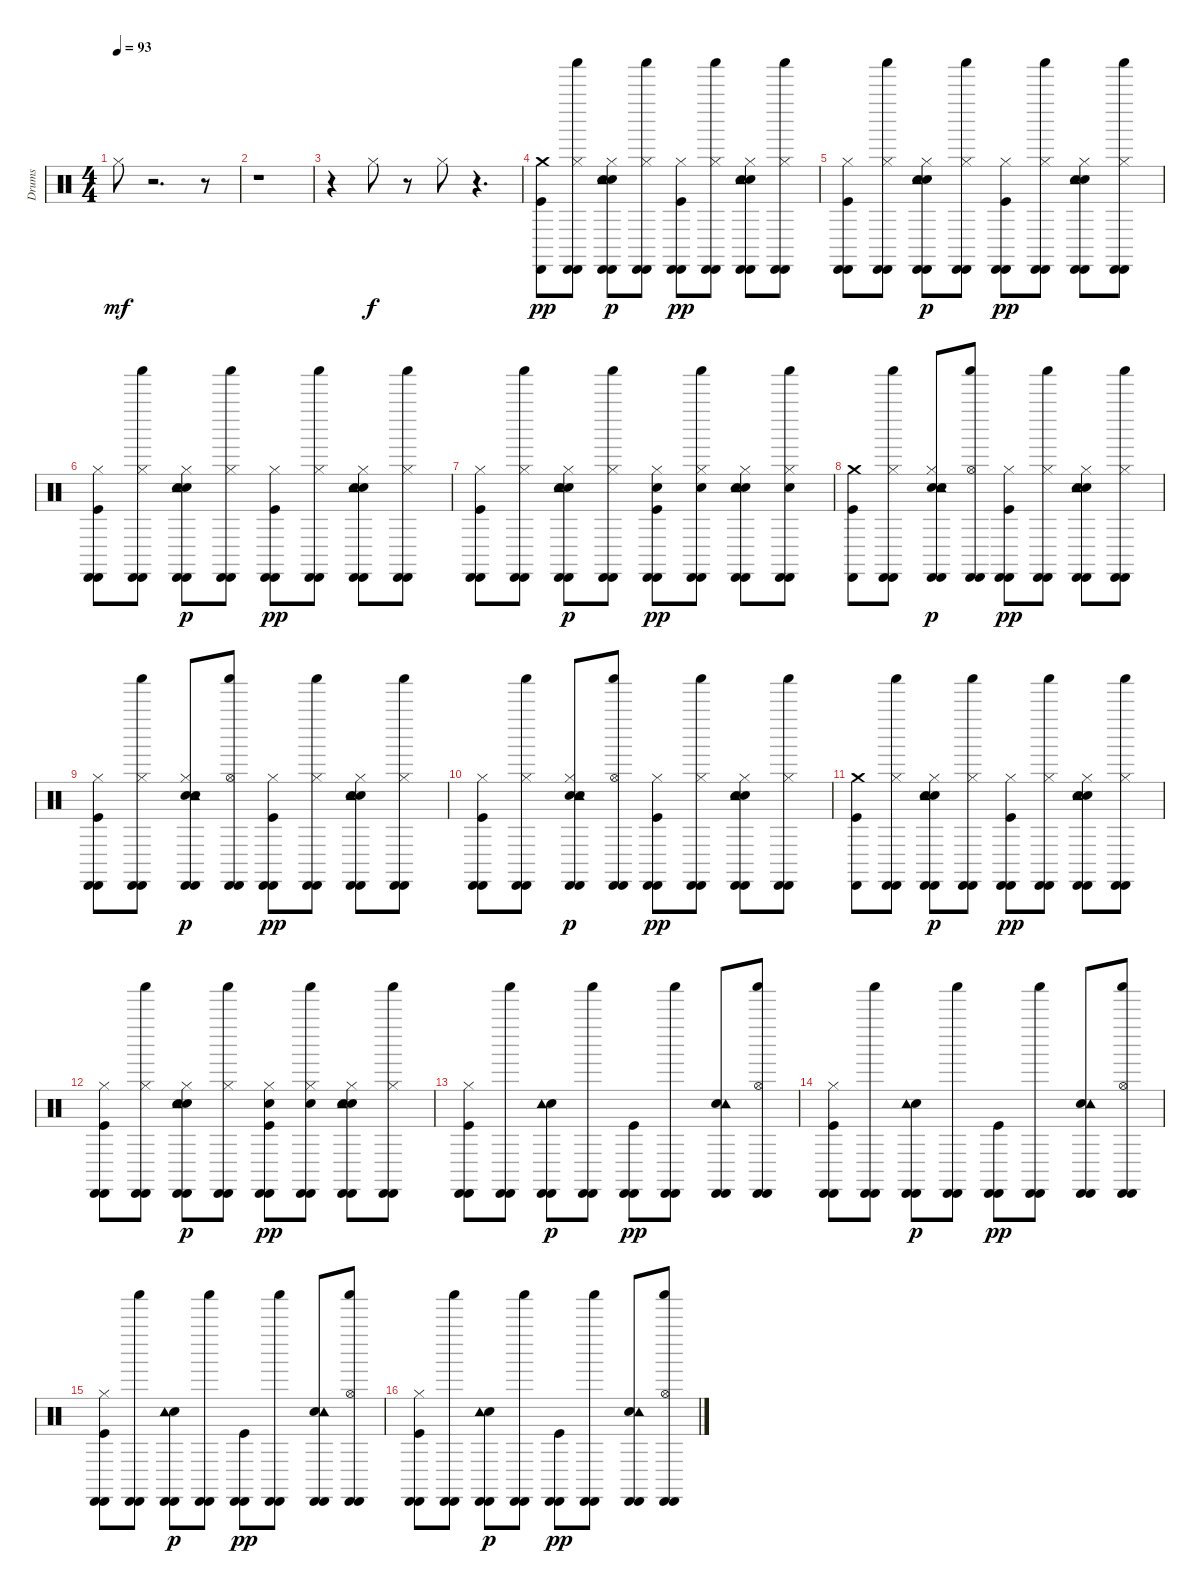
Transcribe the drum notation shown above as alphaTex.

\track ("Drums" "Drums") {instrument percussion}
\staff {score}
\articulation defaults
\ts (4 4)
\tempo 93
\clef neutral
\ks c "Hi-Hat (closed)".8{dy mf}
r.2{d} r.8 |
r.1 |
r.4 "Hi-Hat (closed)".8{dy f} r.8 "Hi-Hat (closed)".8 r.4{d} |
("Kick (hit)" "Crash medium (hit)" "Cabasa (hit)").8{dy pp} ("Hi-Hat (closed)" "Cabasa (hit)" "Shaker (hit)" "Cabasa (hit)").8 ("Hand Clap (hit)" "Electric Snare (hit)" "Hi-Hat (closed)" "Tambourine (hit)" "Cabasa (hit)" "Cabasa (hit)").8{dy p} ("Hi-Hat (closed)" "Cabasa (hit)" "Shaker (hit)" "Cabasa (hit)").8 ("Kick (hit)" "Hi-Hat (closed)" "Cabasa (hit)" "Cabasa (hit)").8{dy pp} ("Hi-Hat (closed)" "Cabasa (hit)" "Shaker (hit)" "Cabasa (hit)").8 ("Hand Clap (hit)" "Electric Snare (hit)" "Hi-Hat (closed)" "Tambourine (hit)" "Cabasa (hit)" "Cabasa (hit)").8 ("Hi-Hat (closed)" "Cabasa (hit)" "Shaker (hit)" "Cabasa (hit)").8 |
("Kick (hit)" "Hi-Hat (closed)" "Cabasa (hit)" "Cabasa (hit)").8 ("Hi-Hat (closed)" "Cabasa (hit)" "Shaker (hit)" "Cabasa (hit)").8 ("Hand Clap (hit)" "Electric Snare (hit)" "Hi-Hat (closed)" "Tambourine (hit)" "Cabasa (hit)" "Cabasa (hit)").8{dy p} ("Hi-Hat (closed)" "Cabasa (hit)" "Shaker (hit)" "Cabasa (hit)").8 ("Kick (hit)" "Hi-Hat (closed)" "Cabasa (hit)" "Cabasa (hit)").8{dy pp} ("Hi-Hat (closed)" "Cabasa (hit)" "Shaker (hit)" "Cabasa (hit)").8 ("Hand Clap (hit)" "Electric Snare (hit)" "Hi-Hat (closed)" "Tambourine (hit)" "Cabasa (hit)" "Cabasa (hit)").8 ("Hi-Hat (closed)" "Cabasa (hit)" "Shaker (hit)" "Cabasa (hit)").8 |
("Kick (hit)" "Hi-Hat (closed)" "Cabasa (hit)" "Cabasa (hit)").8 ("Hi-Hat (closed)" "Cabasa (hit)" "Shaker (hit)" "Cabasa (hit)").8 ("Hand Clap (hit)" "Electric Snare (hit)" "Hi-Hat (closed)" "Tambourine (hit)" "Cabasa (hit)" "Cabasa (hit)").8{dy p} ("Hi-Hat (closed)" "Cabasa (hit)" "Shaker (hit)" "Cabasa (hit)").8 ("Kick (hit)" "Hi-Hat (closed)" "Cabasa (hit)" "Cabasa (hit)").8{dy pp} ("Hi-Hat (closed)" "Cabasa (hit)" "Shaker (hit)" "Cabasa (hit)").8 ("Hand Clap (hit)" "Electric Snare (hit)" "Hi-Hat (closed)" "Tambourine (hit)" "Cabasa (hit)" "Cabasa (hit)").8 ("Hi-Hat (closed)" "Cabasa (hit)" "Shaker (hit)" "Cabasa (hit)").8 |
("Kick (hit)" "Hi-Hat (closed)" "Cabasa (hit)" "Cabasa (hit)").8 ("Hi-Hat (closed)" "Cabasa (hit)" "Shaker (hit)" "Cabasa (hit)").8 ("Hand Clap (hit)" "Electric Snare (hit)" "Hi-Hat (closed)" "Tambourine (hit)" "Cabasa (hit)" "Cabasa (hit)").8{dy p} ("Hi-Hat (closed)" "Cabasa (hit)" "Shaker (hit)" "Cabasa (hit)").8 ("Kick (hit)" "Electric Snare (hit)" "Hi-Hat (closed)" "Cabasa (hit)" "Cabasa (hit)").8{dy pp} ("Electric Snare (hit)" "Hi-Hat (closed)" "Cabasa (hit)" "Shaker (hit)" "Cabasa (hit)").8 ("Hand Clap (hit)" "Hi-Hat (closed)" "Tambourine (hit)" "Cabasa (hit)" "Electric Snare (hit)" "Cabasa (hit)").8 ("Electric Snare (hit)" "Hi-Hat (closed)" "Cabasa (hit)" "Shaker (hit)" "Cabasa (hit)").8 |
("Kick (hit)" "Crash medium (hit)" "Cabasa (hit)").8 ("Hi-Hat (closed)" "Cabasa (hit)" "Shaker (hit)" "Cabasa (hit)").8 ("Hand Clap (hit)" "Electric Snare (hit)" "Hi-Hat (closed)" "Tambourine (hit)" "Cabasa (hit)" "Cabasa (hit)").8{dy p} ("Cabasa (hit)" "Shaker (hit)" "Hi-Hat (open)" "Cabasa (hit)").8 ("Kick (hit)" "Hi-Hat (closed)" "Cabasa (hit)" "Cabasa (hit)").8{dy pp} ("Hi-Hat (closed)" "Cabasa (hit)" "Shaker (hit)" "Cabasa (hit)").8 ("Hand Clap (hit)" "Electric Snare (hit)" "Hi-Hat (closed)" "Tambourine (hit)" "Cabasa (hit)" "Cabasa (hit)").8 ("Hi-Hat (closed)" "Cabasa (hit)" "Shaker (hit)" "Cabasa (hit)").8 |
("Kick (hit)" "Hi-Hat (closed)" "Cabasa (hit)" "Cabasa (hit)").8 ("Hi-Hat (closed)" "Cabasa (hit)" "Shaker (hit)" "Cabasa (hit)").8 ("Hand Clap (hit)" "Electric Snare (hit)" "Hi-Hat (closed)" "Tambourine (hit)" "Cabasa (hit)" "Cabasa (hit)").8{dy p} ("Cabasa (hit)" "Shaker (hit)" "Hi-Hat (open)" "Cabasa (hit)").8 ("Kick (hit)" "Hi-Hat (closed)" "Cabasa (hit)" "Cabasa (hit)").8{dy pp} ("Hi-Hat (closed)" "Cabasa (hit)" "Shaker (hit)" "Cabasa (hit)").8 ("Hand Clap (hit)" "Electric Snare (hit)" "Hi-Hat (closed)" "Tambourine (hit)" "Cabasa (hit)" "Cabasa (hit)").8 ("Hi-Hat (closed)" "Cabasa (hit)" "Shaker (hit)" "Cabasa (hit)").8 |
("Kick (hit)" "Hi-Hat (closed)" "Cabasa (hit)" "Cabasa (hit)").8 ("Hi-Hat (closed)" "Cabasa (hit)" "Shaker (hit)" "Cabasa (hit)").8 ("Hand Clap (hit)" "Electric Snare (hit)" "Hi-Hat (closed)" "Tambourine (hit)" "Cabasa (hit)" "Cabasa (hit)").8{dy p} ("Cabasa (hit)" "Shaker (hit)" "Hi-Hat (open)" "Cabasa (hit)").8 ("Kick (hit)" "Hi-Hat (closed)" "Cabasa (hit)" "Cabasa (hit)").8{dy pp} ("Hi-Hat (closed)" "Cabasa (hit)" "Shaker (hit)" "Cabasa (hit)").8 ("Hand Clap (hit)" "Electric Snare (hit)" "Hi-Hat (closed)" "Tambourine (hit)" "Cabasa (hit)" "Cabasa (hit)").8 ("Hi-Hat (closed)" "Cabasa (hit)" "Shaker (hit)" "Cabasa (hit)").8 |
("Kick (hit)" "Crash medium (hit)" "Cabasa (hit)").8 ("Hi-Hat (closed)" "Cabasa (hit)" "Shaker (hit)" "Cabasa (hit)").8 ("Hand Clap (hit)" "Electric Snare (hit)" "Hi-Hat (closed)" "Tambourine (hit)" "Cabasa (hit)" "Cabasa (hit)").8{dy p} ("Hi-Hat (closed)" "Cabasa (hit)" "Shaker (hit)" "Cabasa (hit)").8 ("Kick (hit)" "Hi-Hat (closed)" "Cabasa (hit)" "Cabasa (hit)").8{dy pp} ("Hi-Hat (closed)" "Cabasa (hit)" "Shaker (hit)" "Cabasa (hit)").8 ("Hand Clap (hit)" "Electric Snare (hit)" "Hi-Hat (closed)" "Tambourine (hit)" "Cabasa (hit)" "Cabasa (hit)").8 ("Hi-Hat (closed)" "Cabasa (hit)" "Shaker (hit)" "Cabasa (hit)").8 |
("Kick (hit)" "Hi-Hat (closed)" "Cabasa (hit)" "Cabasa (hit)").8 ("Hi-Hat (closed)" "Cabasa (hit)" "Shaker (hit)" "Cabasa (hit)").8 ("Hand Clap (hit)" "Electric Snare (hit)" "Hi-Hat (closed)" "Tambourine (hit)" "Cabasa (hit)" "Cabasa (hit)").8{dy p} ("Hi-Hat (closed)" "Cabasa (hit)" "Shaker (hit)" "Cabasa (hit)").8 ("Kick (hit)" "Electric Snare (hit)" "Hi-Hat (closed)" "Cabasa (hit)" "Cabasa (hit)").8{dy pp} ("Electric Snare (hit)" "Hi-Hat (closed)" "Cabasa (hit)" "Shaker (hit)" "Cabasa (hit)").8 ("Hand Clap (hit)" "Electric Snare (hit)" "Hi-Hat (closed)" "Tambourine (hit)" "Cabasa (hit)" "Cabasa (hit)").8 ("Hi-Hat (closed)" "Cabasa (hit)" "Shaker (hit)" "Cabasa (hit)").8 |
("Kick (hit)" "Hi-Hat (closed)" "Cabasa (hit)" "Cabasa (hit)").8 ("Cabasa (hit)" "Shaker (hit)" "Cabasa (hit)").8 ("Hand Clap (hit)" "Tambourine (hit)" "Cabasa (hit)" "Cabasa (hit)").8{dy p} ("Cabasa (hit)" "Shaker (hit)" "Cabasa (hit)").8 ("Kick (hit)" "Cabasa (hit)" "Cabasa (hit)").8{dy pp} ("Cabasa (hit)" "Shaker (hit)" "Cabasa (hit)").8 ("Hand Clap (hit)" "Tambourine (hit)" "Cabasa (hit)" "Cabasa (hit)").8 ("Cabasa (hit)" "Shaker (hit)" "Hi-Hat (open)" "Cabasa (hit)").8 |
("Kick (hit)" "Hi-Hat (closed)" "Cabasa (hit)" "Cabasa (hit)").8 ("Cabasa (hit)" "Shaker (hit)" "Cabasa (hit)").8 ("Hand Clap (hit)" "Tambourine (hit)" "Cabasa (hit)" "Cabasa (hit)").8{dy p} ("Cabasa (hit)" "Shaker (hit)" "Cabasa (hit)").8 ("Kick (hit)" "Cabasa (hit)" "Cabasa (hit)").8{dy pp} ("Cabasa (hit)" "Shaker (hit)" "Cabasa (hit)").8 ("Hand Clap (hit)" "Tambourine (hit)" "Cabasa (hit)" "Cabasa (hit)").8 ("Cabasa (hit)" "Shaker (hit)" "Hi-Hat (open)" "Cabasa (hit)").8 |
("Kick (hit)" "Hi-Hat (closed)" "Cabasa (hit)" "Cabasa (hit)").8 ("Cabasa (hit)" "Shaker (hit)" "Cabasa (hit)").8 ("Hand Clap (hit)" "Tambourine (hit)" "Cabasa (hit)" "Cabasa (hit)").8{dy p} ("Cabasa (hit)" "Shaker (hit)" "Cabasa (hit)").8 ("Kick (hit)" "Cabasa (hit)" "Cabasa (hit)").8{dy pp} ("Cabasa (hit)" "Shaker (hit)" "Cabasa (hit)").8 ("Hand Clap (hit)" "Tambourine (hit)" "Cabasa (hit)" "Cabasa (hit)").8 ("Cabasa (hit)" "Shaker (hit)" "Hi-Hat (open)" "Cabasa (hit)").8 |
("Kick (hit)" "Hi-Hat (closed)" "Cabasa (hit)" "Cabasa (hit)").8 ("Cabasa (hit)" "Shaker (hit)" "Cabasa (hit)").8 ("Hand Clap (hit)" "Tambourine (hit)" "Cabasa (hit)" "Cabasa (hit)").8{dy p} ("Cabasa (hit)" "Shaker (hit)" "Cabasa (hit)").8 ("Kick (hit)" "Cabasa (hit)" "Cabasa (hit)").8{dy pp} ("Cabasa (hit)" "Shaker (hit)" "Cabasa (hit)").8 ("Hand Clap (hit)" "Tambourine (hit)" "Cabasa (hit)" "Cabasa (hit)").8 ("Cabasa (hit)" "Shaker (hit)" "Hi-Hat (open)" "Cabasa (hit)").8
